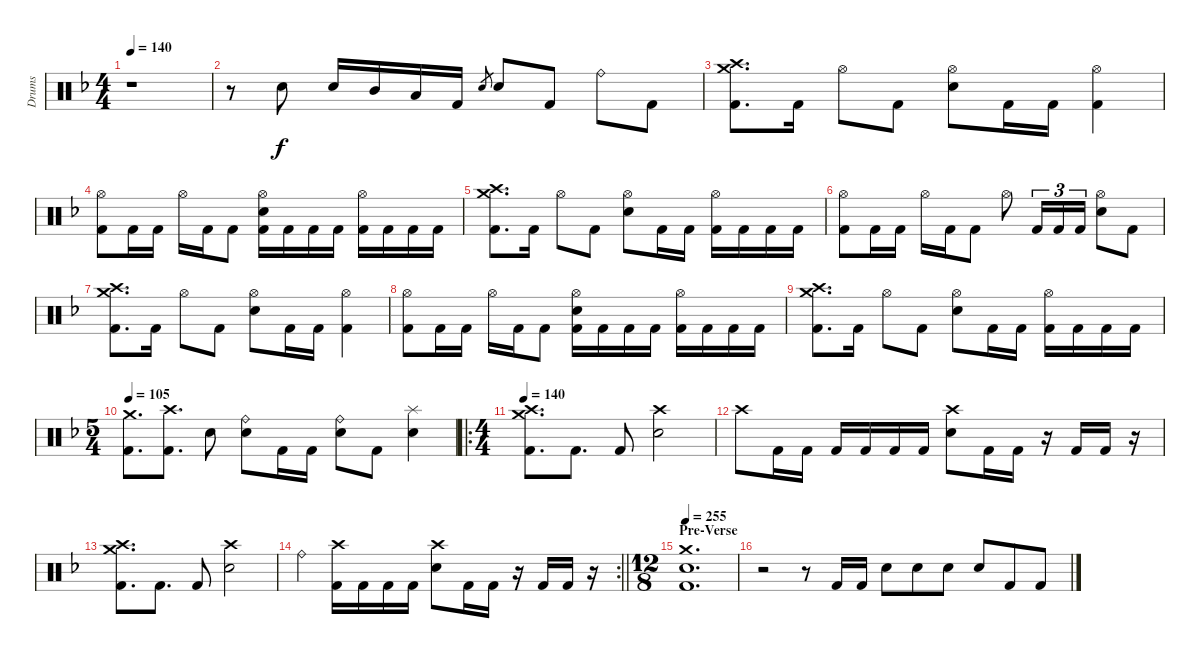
\track ("Drums" "Drums") {instrument percussion}
\staff {score}
\articulation defaults
\ts (4 4)
\tempo 140
\clef neutral
\ks dminor
r.1{dy f} |
r.8 "Electric Snare (hit)".8{volume 14} "Electric Snare (hit)".16 "Mid Tom (hit)".16 "Low Tom (hit)".16 "Kick (hit) 2".16 "Electric Snare (hit)".8{gr} "Electric Snare (hit)".8 "Kick (hit) 2".8 "Ride (bell)".8 "Kick (hit) 2".8 |
("Crash medium (hit)" "Crash high (hit)" "Kick (hit) 2").8{d} "Kick (hit) 2".16 "Hi-Hat (open)".8 "Kick (hit) 2".8 ("Hi-Hat (open)" "Electric Snare (hit)").8 "Kick (hit) 2".16 "Kick (hit) 2".16 ("Hi-Hat (open)" "Kick (hit) 2").4 |
("Hi-Hat (open)" "Kick (hit) 2").8 "Kick (hit) 2".16 "Kick (hit) 2".16 "Hi-Hat (open)".16 "Kick (hit) 2".16 "Kick (hit) 2".8 ("Hi-Hat (open)" "Electric Snare (hit)" "Kick (hit) 2").16 "Kick (hit) 2".16 "Kick (hit) 2".16 "Kick (hit) 2".16 ("Hi-Hat (open)" "Kick (hit) 2").16 "Kick (hit) 2".16 "Kick (hit) 2".16 "Kick (hit) 2".16 |
("Crash medium (hit)" "Crash high (hit)" "Kick (hit) 2").8{d} "Kick (hit) 2".16 "Hi-Hat (open)".8 "Kick (hit) 2".8 ("Hi-Hat (open)" "Electric Snare (hit)").8 "Kick (hit) 2".16 "Kick (hit) 2".16 ("Hi-Hat (open)" "Kick (hit) 2").16 "Kick (hit) 2".16 "Kick (hit) 2".16 "Kick (hit) 2".16 |
("Hi-Hat (open)" "Kick (hit) 2").8 "Kick (hit) 2".16 "Kick (hit) 2".16 "Hi-Hat (open)".16 "Kick (hit) 2".16 "Kick (hit) 2".8 "Hi-Hat (open)".8 "Kick (hit) 2".16{tu (3 2)} "Kick (hit) 2".16{tu (3 2)} "Kick (hit) 2".16{tu (3 2)} ("Hi-Hat (open)" "Electric Snare (hit)").8 "Kick (hit) 2".8 |
("Crash medium (hit)" "Crash high (hit)" "Kick (hit) 2").8{d} "Kick (hit) 2".16 "Hi-Hat (open)".8 "Kick (hit) 2".8 ("Hi-Hat (open)" "Electric Snare (hit)").8 "Kick (hit) 2".16 "Kick (hit) 2".16 ("Hi-Hat (open)" "Kick (hit) 2").4 |
("Hi-Hat (open)" "Kick (hit) 2").8 "Kick (hit) 2".16 "Kick (hit) 2".16 "Hi-Hat (open)".16 "Kick (hit) 2".16 "Kick (hit) 2".8 ("Hi-Hat (open)" "Electric Snare (hit)" "Kick (hit) 2").16 "Kick (hit) 2".16 "Kick (hit) 2".16 "Kick (hit) 2".16 ("Hi-Hat (open)" "Kick (hit) 2").16 "Kick (hit) 2".16 "Kick (hit) 2".16 "Kick (hit) 2".16 |
("Crash medium (hit)" "Crash high (hit)" "Kick (hit) 2").8{d} "Kick (hit) 2".16 "Hi-Hat (open)".8 "Kick (hit) 2".8 ("Hi-Hat (open)" "Electric Snare (hit)").8 "Kick (hit) 2".16 "Kick (hit) 2".16 ("Hi-Hat (open)" "Kick (hit) 2").16 "Kick (hit) 2".16 "Kick (hit) 2".16 "Kick (hit) 2".16 |
\ts (5 4)
\tempo 105
("Crash medium (hit)" "Kick (hit) 2").8{d volume 14} ("Crash high (hit)" "Kick (hit) 2").8{d} "Electric Snare (hit)".8 ("Ride (bell)" "Electric Snare (hit)").8 "Kick (hit) 2".16 "Kick (hit) 2".16 ("Ride (bell)" "Electric Snare (hit)").8 "Kick (hit) 2".8 ("Splash (hit)" "Electric Snare (hit)").4 |
\ro
\ts (4 4)
\tempo 140
("Crash medium (hit)" "Crash high (hit)" "Kick (hit) 2").8{d} "Kick (hit) 2".8{d} "Kick (hit) 2".8 ("Crash high (hit)" "Electric Snare (hit)").2 |
"Crash high (hit)".8 "Kick (hit) 2".16 "Kick (hit) 2".16 "Kick (hit) 2".16 "Kick (hit) 2".16 "Kick (hit) 2".16 "Kick (hit) 2".16 ("Crash high (hit)" "Electric Snare (hit)").8 "Kick (hit) 2".16 "Kick (hit) 2".16 r.16 "Kick (hit) 2".16 "Kick (hit) 2".16 r.16 |
("Crash medium (hit)" "Crash high (hit)" "Kick (hit) 2").8{d} "Kick (hit) 2".8{d} "Kick (hit) 2".8 ("Crash high (hit)" "Electric Snare (hit)").2 |
\rc 2
\barLineRight lightlight "Ride (bell)".4
("Crash high (hit)" "Kick (hit) 2").16 "Kick (hit) 2".16 "Kick (hit) 2".16 "Kick (hit) 2".16 ("Crash high (hit)" "Electric Snare (hit)").8 "Kick (hit) 2".16 "Kick (hit) 2".16 r.16 "Kick (hit) 2".16 "Kick (hit) 2".16 r.16 |
\ts (12 8)
\section ("" "Pre-Verse")
\tempo 255
("Crash medium (hit)" "Electric Snare (hit)" "Kick (hit) 2").1{d} |
r.2 r.8 "Kick (hit) 2".16 "Kick (hit) 2".16 "Electric Snare (hit)".8 "Electric Snare (hit)".8 "Electric Snare (hit)".8 "Electric Snare (hit)".8 "Kick (hit) 2".8 "Kick (hit) 2".8
